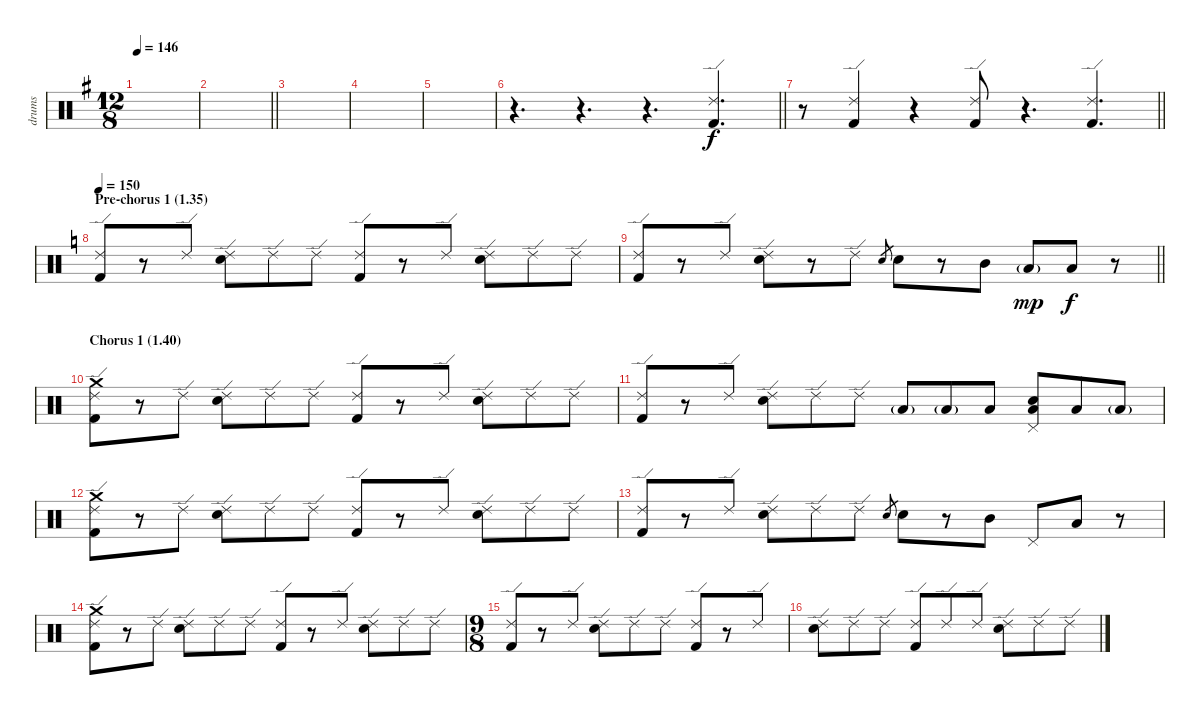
\track ("drums" "drums") {instrument percussion}
\staff {score}
\articulation defaults
\ts (12 8)
\tempo 146
\clef neutral
\ks g
|
\barLineRight lightlight
|
|
|
|
\barLineRight lightlight
r.4{d} r.4{d} r.4{d} ("Ride (edge) 2" "Kick (hit) 2").4{d} |
\barLineRight lightlight
r.8 ("Ride (edge) 2" "Kick (hit) 2").4 r.4 ("Ride (edge) 2" "Kick (hit) 2").8 r.4{d} ("Ride (edge) 2" "Kick (hit) 2").4{d} |
\section ("" "Pre-chorus 1 (1.35)")
\tempo 150
\ks c
("Ride (edge) 2" "Kick (hit) 2").8 r.8 "Ride (edge) 2".8 ("Ride (edge) 2" "Electric Snare (hit)").8 "Ride (edge) 2".8 "Ride (edge) 2".8 ("Ride (edge) 2" "Kick (hit) 2").8 r.8 "Ride (edge) 2".8 ("Ride (edge) 2" "Electric Snare (hit)").8 "Ride (edge) 2".8 "Ride (edge) 2".8 |
\barLineRight lightlight
("Ride (edge) 2" "Kick (hit) 2").8 r.8 "Ride (edge) 2".8 ("Ride (edge) 2" "Electric Snare (hit)").8 r.8 "Ride (edge) 2".8 "Electric Snare (hit)".8{gr} "Electric Snare (hit)".8 r.8 "Mid Tom (hit)".8 "Low Tom (hit)"{g}.8{dy mp} "Low Tom (hit)".8{dy f} r.8 |
\section ("" "Chorus 1 (1.40)")
("Ride (edge) 2" "Crash medium (hit)" "Kick (hit) 2").8 r.8 "Ride (edge) 2".8 ("Ride (edge) 2" "Electric Snare (hit)").8 "Ride (edge) 2".8 "Ride (edge) 2".8 ("Ride (edge) 2" "Kick (hit) 2").8 r.8 "Ride (edge) 2".8 ("Ride (edge) 2" "Electric Snare (hit)").8 "Ride (edge) 2".8 "Ride (edge) 2".8 |
("Ride (edge) 2" "Kick (hit) 2").8 r.8 "Ride (edge) 2".8 ("Ride (edge) 2" "Electric Snare (hit)").8 "Ride (edge) 2".8 "Ride (edge) 2".8 "Low Tom (hit)"{g}.8 "Low Tom (hit)"{g}.8 "Low Tom (hit)".8 ("Pedal Hi-Hat (hit)" "Low Tom (hit)" "Electric Snare (hit)").8 "Low Tom (hit)".8 "Low Tom (hit)"{g}.8 |
("Ride (edge) 2" "Crash medium (hit)" "Kick (hit) 2").8 r.8 "Ride (edge) 2".8 ("Ride (edge) 2" "Electric Snare (hit)").8 "Ride (edge) 2".8 "Ride (edge) 2".8 ("Ride (edge) 2" "Kick (hit) 2").8 r.8 "Ride (edge) 2".8 ("Ride (edge) 2" "Electric Snare (hit)").8 "Ride (edge) 2".8 "Ride (edge) 2".8 |
("Ride (edge) 2" "Kick (hit) 2").8 r.8 "Ride (edge) 2".8 ("Ride (edge) 2" "Electric Snare (hit)").8 "Ride (edge) 2".8 "Ride (edge) 2".8 "Electric Snare (hit)".8{gr} "Electric Snare (hit)".8 r.8 "Mid Tom (hit)".8 "Pedal Hi-Hat (hit)".8 "Low Tom (hit)".8 r.8 |
("Ride (edge) 2" "Crash medium (hit)" "Kick (hit) 2").8 r.8 "Ride (edge) 2".8 ("Ride (edge) 2" "Electric Snare (hit)").8 "Ride (edge) 2".8 "Ride (edge) 2".8 ("Ride (edge) 2" "Kick (hit) 2").8 r.8 "Ride (edge) 2".8 ("Ride (edge) 2" "Electric Snare (hit)").8 "Ride (edge) 2".8 "Ride (edge) 2".8 |
\ts (9 8)
("Ride (edge) 2" "Kick (hit) 2").8 r.8 "Ride (edge) 2".8 ("Ride (edge) 2" "Electric Snare (hit)").8 "Ride (edge) 2".8 "Ride (edge) 2".8 ("Ride (edge) 2" "Kick (hit) 2").8 r.8 "Ride (edge) 2".8 |
("Ride (edge) 2" "Electric Snare (hit)").8 "Ride (edge) 2".8 "Ride (edge) 2".8 ("Ride (edge) 2" "Kick (hit) 2").8 "Ride (edge) 2".8 "Ride (edge) 2".8 ("Ride (edge) 2" "Electric Snare (hit)").8 "Ride (edge) 2".8 "Ride (edge) 2".8
